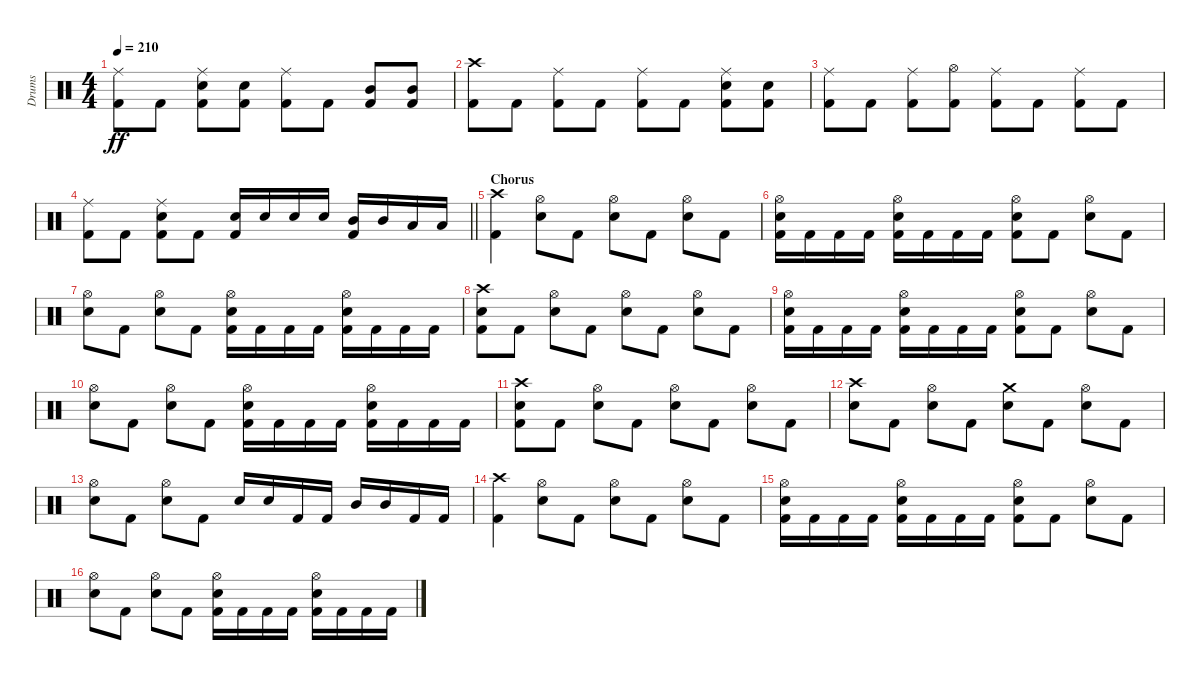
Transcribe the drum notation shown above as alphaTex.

\track ("Drums" "Drums") {instrument percussion}
\staff {score}
\articulation defaults
\ts (4 4)
\tempo 210
\clef neutral
\ks c
("Ride (middle)" "Kick (hit) 2").8{dy ff} "Kick (hit) 2".8 ("Ride (middle)" "Snare (hit) 2" "Kick (hit) 2").8 ("Snare (hit) 2" "Kick (hit) 2").8 ("Ride (middle)" "Kick (hit) 2").8 "Kick (hit) 2".8 ("Mid Tom (hit)" "Kick (hit) 2").8 ("Mid Tom (hit)" "Kick (hit) 2").8 |
("Crash high (hit)" "Kick (hit) 2").8 "Kick (hit) 2".8 ("Ride (middle)" "Kick (hit) 2").8 "Kick (hit) 2".8 ("Ride (middle)" "Kick (hit) 2").8 "Kick (hit) 2".8 ("Ride (middle)" "Snare (hit) 2" "Kick (hit) 2").8 ("Snare (hit) 2" "Kick (hit) 2").8 |
("Ride (middle)" "Kick (hit) 2").8 "Kick (hit) 2".8 ("Ride (middle)" "Kick (hit) 2").8 ("Hi-Hat (open)" "Kick (hit) 2").8 ("Ride (middle)" "Kick (hit) 2").8 "Kick (hit) 2".8 ("Ride (middle)" "Kick (hit) 2").8 "Kick (hit) 2".8 |
\barLineRight lightlight
("Ride (middle)" "Kick (hit) 2").8 "Kick (hit) 2".8 ("Ride (middle)" "Snare (hit) 2" "Kick (hit) 2").8 "Kick (hit) 2".8 ("Snare (hit) 2" "Kick (hit) 2").16 "Snare (hit) 2".16 "Snare (hit) 2".16 "Snare (hit) 2".16 ("Mid Tom (hit)" "Kick (hit) 2").16 "Mid Tom (hit)".16 "Low Tom (hit)".16 "Low Tom (hit)".16 |
\section ("" "Chorus")
("Crash high (hit)" "Kick (hit) 2").4 ("Hi-Hat (open)" "Snare (hit) 2").8 "Kick (hit) 2".8 ("Hi-Hat (open)" "Snare (hit) 2").8 "Kick (hit) 2".8 ("Hi-Hat (open)" "Snare (hit) 2").8 "Kick (hit) 2".8 |
("Hi-Hat (open)" "Snare (hit) 2" "Kick (hit) 2").16 "Kick (hit) 2".16 "Kick (hit) 2".16 "Kick (hit) 2".16 ("Hi-Hat (open)" "Snare (hit) 2" "Kick (hit) 2").16 "Kick (hit) 2".16 "Kick (hit) 2".16 "Kick (hit) 2".16 ("Hi-Hat (open)" "Snare (hit) 2" "Kick (hit) 2").8 "Kick (hit) 2".8 ("Hi-Hat (open)" "Snare (hit) 2").8 "Kick (hit) 2".8 |
("Hi-Hat (open)" "Snare (hit) 2").8 "Kick (hit) 2".8 ("Hi-Hat (open)" "Snare (hit) 2").8 "Kick (hit) 2".8 ("Hi-Hat (open)" "Snare (hit) 2" "Kick (hit) 2").16 "Kick (hit) 2".16 "Kick (hit) 2".16 "Kick (hit) 2".16 ("Hi-Hat (open)" "Snare (hit) 2" "Kick (hit) 2").16 "Kick (hit) 2".16 "Kick (hit) 2".16 "Kick (hit) 2".16 |
("Crash high (hit)" "Snare (hit) 2" "Kick (hit) 2").8 "Kick (hit) 2".8 ("Hi-Hat (open)" "Snare (hit) 2").8 "Kick (hit) 2".8 ("Hi-Hat (open)" "Snare (hit) 2").8 "Kick (hit) 2".8 ("Hi-Hat (open)" "Snare (hit) 2").8 "Kick (hit) 2".8 |
("Hi-Hat (open)" "Snare (hit) 2" "Kick (hit) 2").16 "Kick (hit) 2".16 "Kick (hit) 2".16 "Kick (hit) 2".16 ("Hi-Hat (open)" "Snare (hit) 2" "Kick (hit) 2").16 "Kick (hit) 2".16 "Kick (hit) 2".16 "Kick (hit) 2".16 ("Hi-Hat (open)" "Snare (hit) 2" "Kick (hit) 2").8 "Kick (hit) 2".8 ("Hi-Hat (open)" "Snare (hit) 2").8 "Kick (hit) 2".8 |
("Hi-Hat (open)" "Snare (hit) 2").8 "Kick (hit) 2".8 ("Hi-Hat (open)" "Snare (hit) 2").8 "Kick (hit) 2".8 ("Hi-Hat (open)" "Snare (hit) 2" "Kick (hit) 2").16 "Kick (hit) 2".16 "Kick (hit) 2".16 "Kick (hit) 2".16 ("Hi-Hat (open)" "Snare (hit) 2" "Kick (hit) 2").16 "Kick (hit) 2".16 "Kick (hit) 2".16 "Kick (hit) 2".16 |
("Crash high (hit)" "Snare (hit) 2" "Kick (hit) 2").8 "Kick (hit) 2".8 ("Hi-Hat (open)" "Snare (hit) 2").8 "Kick (hit) 2".8 ("Hi-Hat (open)" "Snare (hit) 2").8 "Kick (hit) 2".8 ("Hi-Hat (open)" "Snare (hit) 2").8 "Kick (hit) 2".8 |
("Crash high (hit)" "Snare (hit) 2").8 "Kick (hit) 2".8 ("Hi-Hat (open)" "Snare (hit) 2").8 "Kick (hit) 2".8 ("Crash medium (hit)" "Snare (hit) 2").8 "Kick (hit) 2".8 ("Hi-Hat (open)" "Snare (hit) 2").8 "Kick (hit) 2".8 |
("Hi-Hat (open)" "Snare (hit) 2").8 "Kick (hit) 2".8 ("Hi-Hat (open)" "Snare (hit) 2").8 "Kick (hit) 2".8 "Snare (hit) 2".16 "Snare (hit) 2".16 "Kick (hit) 2".16 "Kick (hit) 2".16 "Mid Tom (hit)".16 "Mid Tom (hit)".16 "Kick (hit) 2".16 "Kick (hit) 2".16 |
("Crash high (hit)" "Kick (hit) 2").4 ("Hi-Hat (open)" "Snare (hit) 2").8 "Kick (hit) 2".8 ("Hi-Hat (open)" "Snare (hit) 2").8 "Kick (hit) 2".8 ("Hi-Hat (open)" "Snare (hit) 2").8 "Kick (hit) 2".8 |
("Hi-Hat (open)" "Snare (hit) 2" "Kick (hit) 2").16 "Kick (hit) 2".16 "Kick (hit) 2".16 "Kick (hit) 2".16 ("Hi-Hat (open)" "Snare (hit) 2" "Kick (hit) 2").16 "Kick (hit) 2".16 "Kick (hit) 2".16 "Kick (hit) 2".16 ("Hi-Hat (open)" "Snare (hit) 2" "Kick (hit) 2").8 "Kick (hit) 2".8 ("Hi-Hat (open)" "Snare (hit) 2").8 "Kick (hit) 2".8 |
("Hi-Hat (open)" "Snare (hit) 2").8 "Kick (hit) 2".8 ("Hi-Hat (open)" "Snare (hit) 2").8 "Kick (hit) 2".8 ("Hi-Hat (open)" "Snare (hit) 2" "Kick (hit) 2").16 "Kick (hit) 2".16 "Kick (hit) 2".16 "Kick (hit) 2".16 ("Hi-Hat (open)" "Snare (hit) 2" "Kick (hit) 2").16 "Kick (hit) 2".16 "Kick (hit) 2".16 "Kick (hit) 2".16
